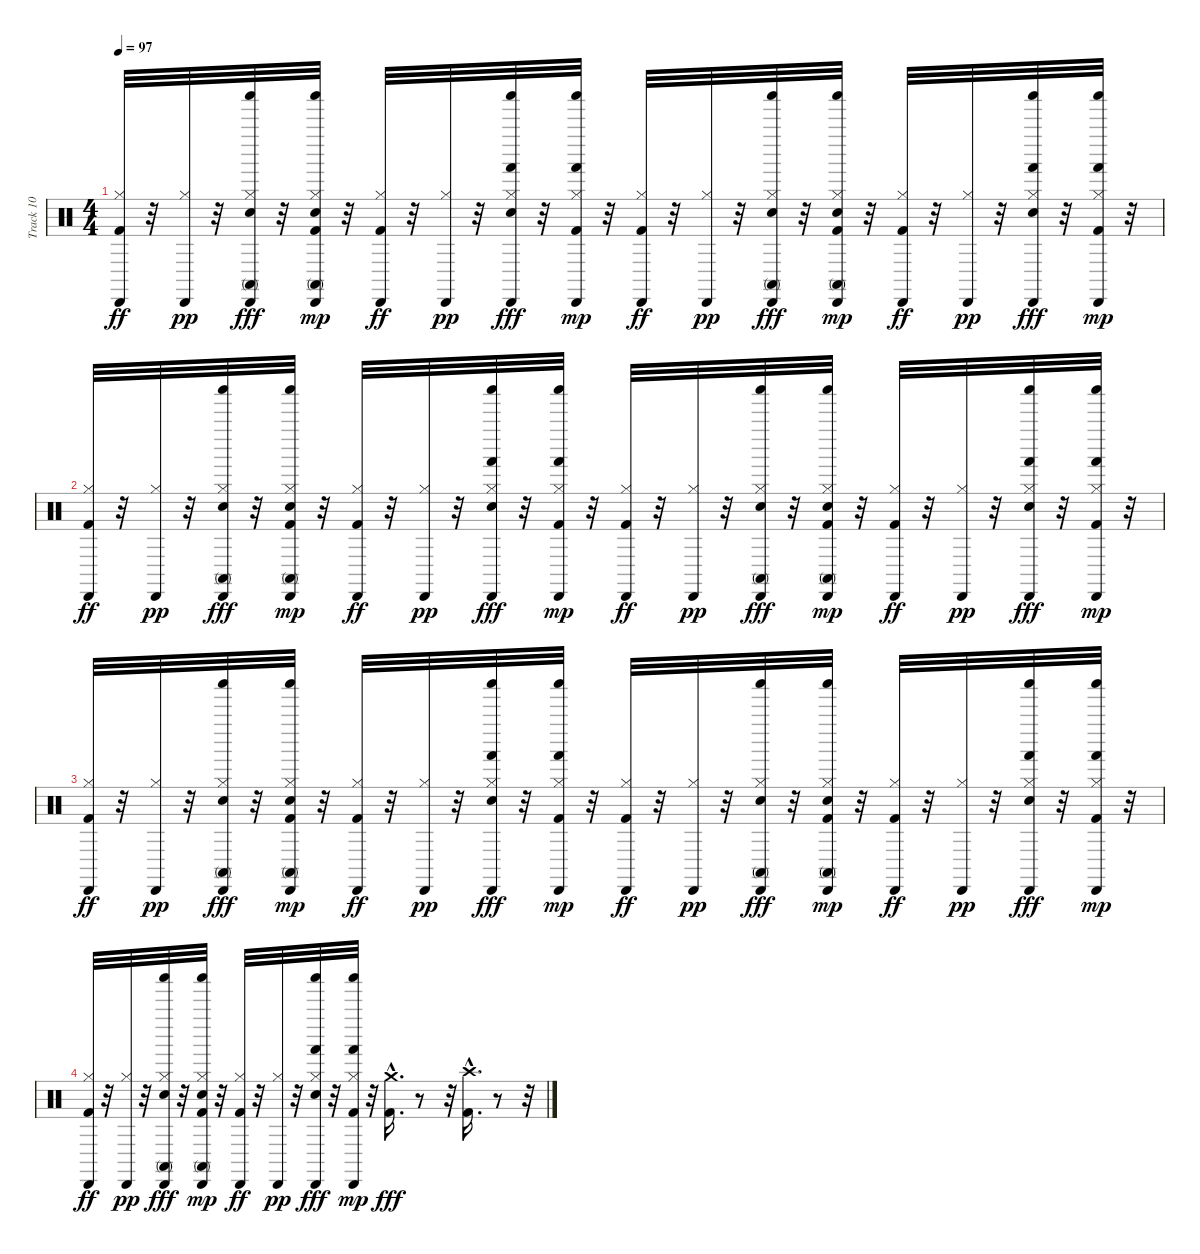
\track ("Track 10" "Track 10") {instrument percussion}
\staff {score}
\articulation defaults
\ts (4 4)
\tempo 97
\clef neutral
\ks c
("Hi-Hat (closed)" "Cabasa (hit)" "Kick (hit) 2").32{dy ff} r.32 ("Hi-Hat (closed)" "Cabasa (hit)").32{dy pp} r.32 ("Hi-Hat (closed)" "Shaker (hit)" "Conga high (mute)" "Cabasa (hit)" "Snare (hit) 2").32{dy fff} r.32 ("Hi-Hat (closed)" "Shaker (hit)" "Conga high (mute)" "Cabasa (hit)" "Kick (hit) 2" "Snare (hit) 2").32{dy mp} r.32 ("Hi-Hat (closed)" "Cabasa (hit)" "Kick (hit) 2").32{dy ff} r.32 ("Hi-Hat (closed)" "Cabasa (hit)").32{dy pp} r.32 ("Hi-Hat (closed)" "Shaker (hit)" "Hand (hit)" "Cabasa (hit)" "Snare (hit) 2").32{dy fff} r.32 ("Hi-Hat (closed)" "Shaker (hit)" "Hand (hit)" "Cabasa (hit)" "Kick (hit) 2").32{dy mp} r.32 ("Hi-Hat (closed)" "Cabasa (hit)" "Kick (hit) 2").32{dy ff} r.32 ("Hi-Hat (closed)" "Cabasa (hit)").32{dy pp} r.32 ("Hi-Hat (closed)" "Shaker (hit)" "Conga high (mute)" "Cabasa (hit)" "Snare (hit) 2").32{dy fff} r.32 ("Hi-Hat (closed)" "Shaker (hit)" "Conga high (mute)" "Cabasa (hit)" "Kick (hit) 2" "Snare (hit) 2").32{dy mp} r.32 ("Hi-Hat (closed)" "Cabasa (hit)" "Kick (hit) 2").32{dy ff} r.32 ("Hi-Hat (closed)" "Cabasa (hit)").32{dy pp} r.32 ("Hi-Hat (closed)" "Shaker (hit)" "Hand (hit)" "Cabasa (hit)" "Snare (hit) 2").32{dy fff} r.32 ("Hi-Hat (closed)" "Shaker (hit)" "Hand (hit)" "Cabasa (hit)" "Kick (hit) 2").32{dy mp} r.32 |
("Hi-Hat (closed)" "Cabasa (hit)" "Kick (hit) 2").32{dy ff} r.32 ("Hi-Hat (closed)" "Cabasa (hit)").32{dy pp} r.32 ("Hi-Hat (closed)" "Shaker (hit)" "Conga high (mute)" "Cabasa (hit)" "Snare (hit) 2").32{dy fff} r.32 ("Hi-Hat (closed)" "Shaker (hit)" "Conga high (mute)" "Cabasa (hit)" "Kick (hit) 2" "Snare (hit) 2").32{dy mp} r.32 ("Hi-Hat (closed)" "Cabasa (hit)" "Kick (hit) 2").32{dy ff} r.32 ("Hi-Hat (closed)" "Cabasa (hit)").32{dy pp} r.32 ("Hi-Hat (closed)" "Shaker (hit)" "Hand (hit)" "Cabasa (hit)" "Snare (hit) 2").32{dy fff} r.32 ("Hi-Hat (closed)" "Shaker (hit)" "Hand (hit)" "Cabasa (hit)" "Kick (hit) 2").32{dy mp} r.32 ("Hi-Hat (closed)" "Cabasa (hit)" "Kick (hit) 2").32{dy ff} r.32 ("Hi-Hat (closed)" "Cabasa (hit)").32{dy pp} r.32 ("Hi-Hat (closed)" "Shaker (hit)" "Conga high (mute)" "Cabasa (hit)" "Snare (hit) 2").32{dy fff} r.32 ("Hi-Hat (closed)" "Shaker (hit)" "Conga high (mute)" "Cabasa (hit)" "Kick (hit) 2" "Snare (hit) 2").32{dy mp} r.32 ("Hi-Hat (closed)" "Cabasa (hit)" "Kick (hit) 2").32{dy ff} r.32 ("Hi-Hat (closed)" "Cabasa (hit)").32{dy pp} r.32 ("Hi-Hat (closed)" "Shaker (hit)" "Hand (hit)" "Cabasa (hit)" "Snare (hit) 2").32{dy fff} r.32 ("Hi-Hat (closed)" "Shaker (hit)" "Hand (hit)" "Cabasa (hit)" "Kick (hit) 2").32{dy mp} r.32 |
("Hi-Hat (closed)" "Cabasa (hit)" "Kick (hit) 2").32{dy ff} r.32 ("Hi-Hat (closed)" "Cabasa (hit)").32{dy pp} r.32 ("Hi-Hat (closed)" "Shaker (hit)" "Conga high (mute)" "Cabasa (hit)" "Snare (hit) 2").32{dy fff} r.32 ("Hi-Hat (closed)" "Shaker (hit)" "Conga high (mute)" "Cabasa (hit)" "Kick (hit) 2" "Snare (hit) 2").32{dy mp} r.32 ("Hi-Hat (closed)" "Cabasa (hit)" "Kick (hit) 2").32{dy ff} r.32 ("Hi-Hat (closed)" "Cabasa (hit)").32{dy pp} r.32 ("Hi-Hat (closed)" "Shaker (hit)" "Hand (hit)" "Cabasa (hit)" "Snare (hit) 2").32{dy fff} r.32 ("Hi-Hat (closed)" "Shaker (hit)" "Hand (hit)" "Cabasa (hit)" "Kick (hit) 2").32{dy mp} r.32 ("Hi-Hat (closed)" "Cabasa (hit)" "Kick (hit) 2").32{dy ff} r.32 ("Hi-Hat (closed)" "Cabasa (hit)").32{dy pp} r.32 ("Hi-Hat (closed)" "Shaker (hit)" "Conga high (mute)" "Cabasa (hit)" "Snare (hit) 2").32{dy fff} r.32 ("Hi-Hat (closed)" "Shaker (hit)" "Conga high (mute)" "Cabasa (hit)" "Kick (hit) 2" "Snare (hit) 2").32{dy mp} r.32 ("Hi-Hat (closed)" "Cabasa (hit)" "Kick (hit) 2").32{dy ff} r.32 ("Hi-Hat (closed)" "Cabasa (hit)").32{dy pp} r.32 ("Hi-Hat (closed)" "Shaker (hit)" "Hand (hit)" "Cabasa (hit)" "Snare (hit) 2").32{dy fff} r.32 ("Hi-Hat (closed)" "Shaker (hit)" "Hand (hit)" "Cabasa (hit)" "Kick (hit) 2").32{dy mp} r.32 |
("Hi-Hat (closed)" "Cabasa (hit)" "Kick (hit) 2").32{dy ff} r.32 ("Hi-Hat (closed)" "Cabasa (hit)").32{dy pp} r.32 ("Hi-Hat (closed)" "Shaker (hit)" "Conga high (mute)" "Cabasa (hit)" "Snare (hit) 2").32{dy fff} r.32 ("Hi-Hat (closed)" "Shaker (hit)" "Conga high (mute)" "Cabasa (hit)" "Kick (hit) 2" "Snare (hit) 2").32{dy mp} r.32 ("Hi-Hat (closed)" "Cabasa (hit)" "Kick (hit) 2").32{dy ff} r.32 ("Hi-Hat (closed)" "Cabasa (hit)").32{dy pp} r.32 ("Hi-Hat (closed)" "Shaker (hit)" "Hand (hit)" "Cabasa (hit)" "Snare (hit) 2").32{dy fff} r.32 ("Hi-Hat (closed)" "Shaker (hit)" "Hand (hit)" "Cabasa (hit)" "Kick (hit) 2").32{dy mp} r.32 ("Crash medium (hit)" "Kick (hit) 2"{hac}).16{d dy fff} r.8 r.32 ("Crash high (hit)" "Kick (hit) 2"{hac}).16{d} r.8 r.32
